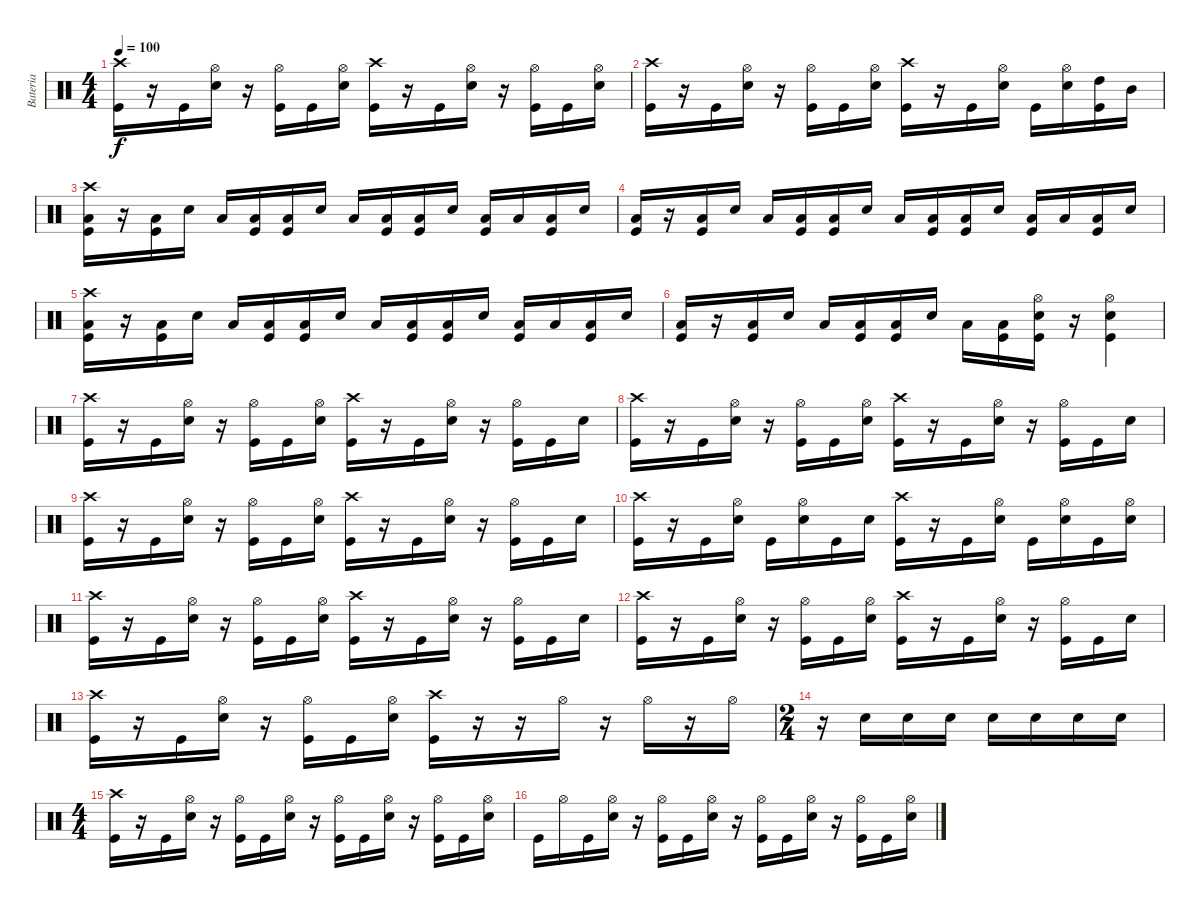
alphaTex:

\track ("Bateria" "Bateria") {instrument percussion}
\staff {score}
\articulation defaults
\ts (4 4)
\tempo 100
\clef neutral
\ks c
("Crash high (hit)" "Kick (hit)").16{dy f} r.16 "Kick (hit)".16 ("Snare (hit) 2" "Hi-Hat (open)").16 r.16 ("Hi-Hat (open)" "Kick (hit)").16 "Kick (hit)".16 ("Snare (hit) 2" "Hi-Hat (open)").16 ("Crash high (hit)" "Kick (hit)").16 r.16 "Kick (hit)".16 ("Snare (hit) 2" "Hi-Hat (open)").16 r.16 ("Hi-Hat (open)" "Kick (hit)").16 "Kick (hit)".16 ("Snare (hit) 2" "Hi-Hat (open)").16 |
("Crash high (hit)" "Kick (hit)").16 r.16 "Kick (hit)".16 ("Snare (hit) 2" "Hi-Hat (open)").16 r.16 ("Hi-Hat (open)" "Kick (hit)").16 "Kick (hit)".16 ("Snare (hit) 2" "Hi-Hat (open)").16 ("Crash high (hit)" "Kick (hit)").16 r.16 "Kick (hit)".16 ("Snare (hit) 2" "Hi-Hat (open)").16 "Kick (hit)".16 ("Snare (hit) 2" "Hi-Hat (open)").16 ("Kick (hit)" "High Tom (hit)").16 "Mid Tom (hit)".16 |
("Crash high (hit)" "Kick (hit)" "Low Tom (hit)").16 r.16 ("Kick (hit)" "Low Tom (hit)").16 "Snare (hit) 2".16 "Low Tom (hit)".16 ("Kick (hit)" "Low Tom (hit)").16 ("Kick (hit)" "Low Tom (hit)").16 "Snare (hit) 2".16 "Low Tom (hit)".16 ("Kick (hit)" "Low Tom (hit)").16 ("Kick (hit)" "Low Tom (hit)").16 "Snare (hit) 2".16 ("Kick (hit)" "Low Tom (hit)").16 "Low Tom (hit)".16 ("Kick (hit)" "Low Tom (hit)").16 "Snare (hit) 2".16 |
("Kick (hit)" "Low Tom (hit)").16 r.16 ("Kick (hit)" "Low Tom (hit)").16 "Snare (hit) 2".16 "Low Tom (hit)".16 ("Kick (hit)" "Low Tom (hit)").16 ("Kick (hit)" "Low Tom (hit)").16 "Snare (hit) 2".16 "Low Tom (hit)".16 ("Kick (hit)" "Low Tom (hit)").16 ("Kick (hit)" "Low Tom (hit)").16 "Snare (hit) 2".16 ("Kick (hit)" "Low Tom (hit)").16 "Low Tom (hit)".16 ("Kick (hit)" "Low Tom (hit)").16 "Snare (hit) 2".16 |
("Crash high (hit)" "Kick (hit)" "Low Tom (hit)").16 r.16 ("Kick (hit)" "Low Tom (hit)").16 "Snare (hit) 2".16 "Low Tom (hit)".16 ("Kick (hit)" "Low Tom (hit)").16 ("Kick (hit)" "Low Tom (hit)").16 "Snare (hit) 2".16 "Low Tom (hit)".16 ("Kick (hit)" "Low Tom (hit)").16 ("Kick (hit)" "Low Tom (hit)").16 "Snare (hit) 2".16 ("Kick (hit)" "Low Tom (hit)").16 "Low Tom (hit)".16 ("Kick (hit)" "Low Tom (hit)").16 "Snare (hit) 2".16 |
("Kick (hit)" "Low Tom (hit)").16 r.16 ("Kick (hit)" "Low Tom (hit)").16 "Snare (hit) 2".16 "Low Tom (hit)".16 ("Kick (hit)" "Low Tom (hit)").16 ("Kick (hit)" "Low Tom (hit)").16 "Snare (hit) 2".16 "Low Tom (hit)".16 ("Kick (hit)" "Low Tom (hit)").16 ("Snare (hit) 2" "Hi-Hat (open)" "Kick (hit)").16 r.16 ("Snare (hit) 2" "Hi-Hat (open)" "Kick (hit)").4 |
("Crash high (hit)" "Kick (hit)").16 r.16 "Kick (hit)".16 ("Snare (hit) 2" "Hi-Hat (open)").16 r.16 ("Hi-Hat (open)" "Kick (hit)").16 "Kick (hit)".16 ("Snare (hit) 2" "Hi-Hat (open)").16 ("Crash high (hit)" "Kick (hit)").16 r.16 "Kick (hit)".16 ("Snare (hit) 2" "Hi-Hat (open)").16 r.16 ("Hi-Hat (open)" "Kick (hit)").16 "Kick (hit)".16 "Snare (hit) 2".16 |
("Crash high (hit)" "Kick (hit)").16 r.16 "Kick (hit)".16 ("Snare (hit) 2" "Hi-Hat (open)").16 r.16 ("Hi-Hat (open)" "Kick (hit)").16 "Kick (hit)".16 ("Snare (hit) 2" "Hi-Hat (open)").16 ("Crash high (hit)" "Kick (hit)").16 r.16 "Kick (hit)".16 ("Snare (hit) 2" "Hi-Hat (open)").16 r.16 ("Hi-Hat (open)" "Kick (hit)").16 "Kick (hit)".16 "Snare (hit) 2".16 |
("Crash high (hit)" "Kick (hit)").16 r.16 "Kick (hit)".16 ("Snare (hit) 2" "Hi-Hat (open)").16 r.16 ("Hi-Hat (open)" "Kick (hit)").16 "Kick (hit)".16 ("Snare (hit) 2" "Hi-Hat (open)").16 ("Crash high (hit)" "Kick (hit)").16 r.16 "Kick (hit)".16 ("Snare (hit) 2" "Hi-Hat (open)").16 r.16 ("Hi-Hat (open)" "Kick (hit)").16 "Kick (hit)".16 "Snare (hit) 2".16 |
("Crash high (hit)" "Kick (hit)").16 r.16 "Kick (hit)".16 ("Snare (hit) 2" "Hi-Hat (open)").16 "Kick (hit)".16 ("Snare (hit) 2" "Hi-Hat (open)").16 "Kick (hit)".16 "Snare (hit) 2".16 ("Crash high (hit)" "Kick (hit)").16 r.16 "Kick (hit)".16 ("Snare (hit) 2" "Hi-Hat (open)").16 "Kick (hit)".16 ("Snare (hit) 2" "Hi-Hat (open)").16 "Kick (hit)".16 ("Snare (hit) 2" "Hi-Hat (open)").16 |
("Crash high (hit)" "Kick (hit)").16 r.16 "Kick (hit)".16 ("Snare (hit) 2" "Hi-Hat (open)").16 r.16 ("Hi-Hat (open)" "Kick (hit)").16 "Kick (hit)".16 ("Snare (hit) 2" "Hi-Hat (open)").16 ("Crash high (hit)" "Kick (hit)").16 r.16 "Kick (hit)".16 ("Snare (hit) 2" "Hi-Hat (open)").16 r.16 ("Hi-Hat (open)" "Kick (hit)").16 "Kick (hit)".16 "Snare (hit) 2".16 |
("Crash high (hit)" "Kick (hit)").16 r.16 "Kick (hit)".16 ("Snare (hit) 2" "Hi-Hat (open)").16 r.16 ("Hi-Hat (open)" "Kick (hit)").16 "Kick (hit)".16 ("Snare (hit) 2" "Hi-Hat (open)").16 ("Crash high (hit)" "Kick (hit)").16 r.16 "Kick (hit)".16 ("Snare (hit) 2" "Hi-Hat (open)").16 r.16 ("Hi-Hat (open)" "Kick (hit)").16 "Kick (hit)".16 "Snare (hit) 2".16 |
("Crash high (hit)" "Kick (hit)").16 r.16 "Kick (hit)".16 ("Snare (hit) 2" "Hi-Hat (open)").16 r.16 ("Hi-Hat (open)" "Kick (hit)").16 "Kick (hit)".16 ("Snare (hit) 2" "Hi-Hat (open)").16 ("Crash high (hit)" "Kick (hit)").16 r.16 r.16 "Hi-Hat (open)".16 r.16 "Hi-Hat (open)".16 r.16 "Hi-Hat (open)".16 |
\ts (2 4)
r.16 "Snare (hit) 2".16 "Snare (hit) 2".16 "Snare (hit) 2".16 "Snare (hit) 2".16 "Snare (hit) 2".16 "Snare (hit) 2".16 "Snare (hit) 2".16 |
\ts (4 4)
("Crash high (hit)" "Kick (hit)").16 r.16 "Kick (hit)".16 ("Snare (hit) 2" "Hi-Hat (open)").16 r.16 ("Hi-Hat (open)" "Kick (hit)").16 "Kick (hit)".16 ("Snare (hit) 2" "Hi-Hat (open)").16 r.16 ("Hi-Hat (open)" "Kick (hit)").16 "Kick (hit)".16 ("Snare (hit) 2" "Hi-Hat (open)").16 r.16 ("Hi-Hat (open)" "Kick (hit)").16 "Kick (hit)".16 ("Snare (hit) 2" "Hi-Hat (open)").16 |
"Kick (hit)".16 "Hi-Hat (open)".16 "Kick (hit)".16 ("Snare (hit) 2" "Hi-Hat (open)").16 r.16 ("Hi-Hat (open)" "Kick (hit)").16 "Kick (hit)".16 ("Snare (hit) 2" "Hi-Hat (open)").16 r.16 ("Hi-Hat (open)" "Kick (hit)").16 "Kick (hit)".16 ("Snare (hit) 2" "Hi-Hat (open)").16 r.16 ("Hi-Hat (open)" "Kick (hit)").16 "Kick (hit)".16 ("Snare (hit) 2" "Hi-Hat (open)").16
